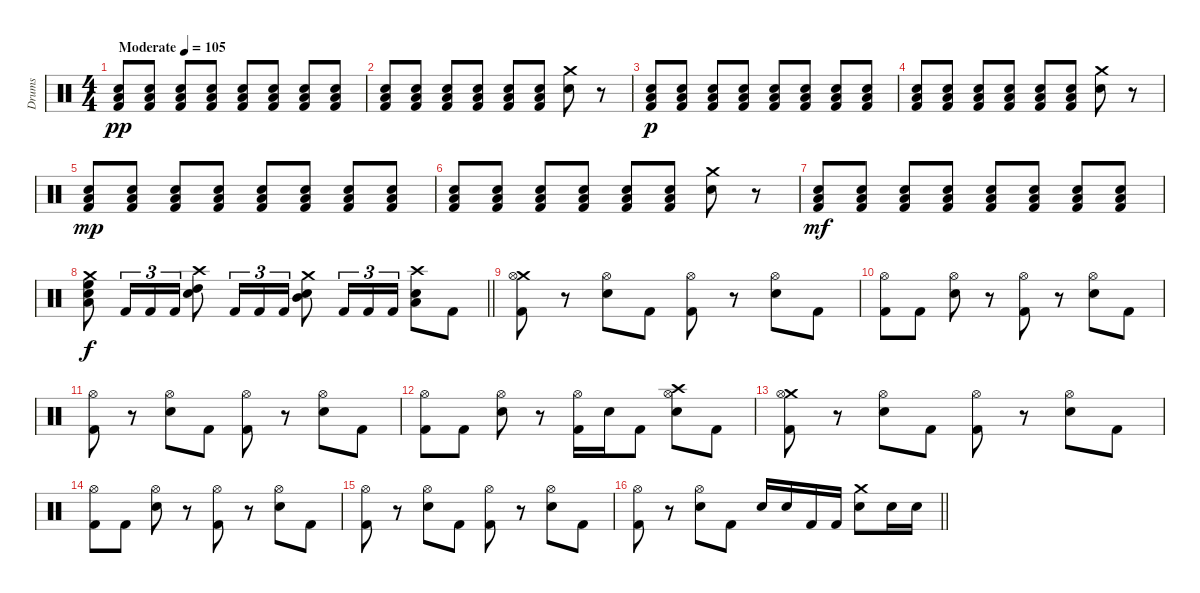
\track ("Drums" "Drums") {instrument percussion}
\staff {score}
\articulation defaults
\ts (4 4)
\section ("" "")
\tempo (105 "Moderate")
\clef neutral
\ks c
("Low Floor Tom (hit)" "Electric Snare (hit)" "Kick (hit) 2").8{dy pp} ("Low Floor Tom (hit)" "Electric Snare (hit)" "Kick (hit) 2").8 ("Low Floor Tom (hit)" "Electric Snare (hit)" "Kick (hit) 2").8 ("Low Floor Tom (hit)" "Electric Snare (hit)" "Kick (hit) 2").8 ("Low Floor Tom (hit)" "Electric Snare (hit)" "Kick (hit) 2").8 ("Low Floor Tom (hit)" "Electric Snare (hit)" "Kick (hit) 2").8 ("Low Floor Tom (hit)" "Electric Snare (hit)" "Kick (hit) 2").8 ("Low Floor Tom (hit)" "Electric Snare (hit)" "Kick (hit) 2").8 |
("Low Floor Tom (hit)" "Electric Snare (hit)" "Kick (hit) 2").8 ("Low Floor Tom (hit)" "Electric Snare (hit)" "Kick (hit) 2").8 ("Low Floor Tom (hit)" "Electric Snare (hit)" "Kick (hit) 2").8 ("Low Floor Tom (hit)" "Electric Snare (hit)" "Kick (hit) 2").8 ("Low Floor Tom (hit)" "Electric Snare (hit)" "Kick (hit) 2").8 ("Low Floor Tom (hit)" "Electric Snare (hit)" "Kick (hit) 2").8 ("Crash medium (hit)" "Electric Snare (hit)").8 r.8 |
("Low Floor Tom (hit)" "Electric Snare (hit)" "Kick (hit) 2").8{dy p} ("Low Floor Tom (hit)" "Electric Snare (hit)" "Kick (hit) 2").8 ("Low Floor Tom (hit)" "Electric Snare (hit)" "Kick (hit) 2").8 ("Low Floor Tom (hit)" "Electric Snare (hit)" "Kick (hit) 2").8 ("Low Floor Tom (hit)" "Electric Snare (hit)" "Kick (hit) 2").8 ("Low Floor Tom (hit)" "Electric Snare (hit)" "Kick (hit) 2").8 ("Low Floor Tom (hit)" "Electric Snare (hit)" "Kick (hit) 2").8 ("Low Floor Tom (hit)" "Electric Snare (hit)" "Kick (hit) 2").8 |
("Low Floor Tom (hit)" "Electric Snare (hit)" "Kick (hit) 2").8 ("Low Floor Tom (hit)" "Electric Snare (hit)" "Kick (hit) 2").8 ("Low Floor Tom (hit)" "Electric Snare (hit)" "Kick (hit) 2").8 ("Low Floor Tom (hit)" "Electric Snare (hit)" "Kick (hit) 2").8 ("Low Floor Tom (hit)" "Electric Snare (hit)" "Kick (hit) 2").8 ("Low Floor Tom (hit)" "Electric Snare (hit)" "Kick (hit) 2").8 ("Crash medium (hit)" "Electric Snare (hit)").8 r.8 |
("Low Floor Tom (hit)" "Electric Snare (hit)" "Kick (hit) 2").8{dy mp} ("Low Floor Tom (hit)" "Electric Snare (hit)" "Kick (hit) 2").8 ("Low Floor Tom (hit)" "Electric Snare (hit)" "Kick (hit) 2").8 ("Low Floor Tom (hit)" "Electric Snare (hit)" "Kick (hit) 2").8 ("Low Floor Tom (hit)" "Electric Snare (hit)" "Kick (hit) 2").8 ("Low Floor Tom (hit)" "Electric Snare (hit)" "Kick (hit) 2").8 ("Low Floor Tom (hit)" "Electric Snare (hit)" "Kick (hit) 2").8 ("Low Floor Tom (hit)" "Electric Snare (hit)" "Kick (hit) 2").8 |
("Low Floor Tom (hit)" "Electric Snare (hit)" "Kick (hit) 2").8 ("Low Floor Tom (hit)" "Electric Snare (hit)" "Kick (hit) 2").8 ("Low Floor Tom (hit)" "Electric Snare (hit)" "Kick (hit) 2").8 ("Low Floor Tom (hit)" "Electric Snare (hit)" "Kick (hit) 2").8 ("Low Floor Tom (hit)" "Electric Snare (hit)" "Kick (hit) 2").8 ("Low Floor Tom (hit)" "Electric Snare (hit)" "Kick (hit) 2").8 ("Crash medium (hit)" "Electric Snare (hit)").8 r.8 |
("Low Floor Tom (hit)" "Electric Snare (hit)" "Kick (hit) 2").8{dy mf} ("Low Floor Tom (hit)" "Electric Snare (hit)" "Kick (hit) 2").8 ("Low Floor Tom (hit)" "Electric Snare (hit)" "Kick (hit) 2").8 ("Low Floor Tom (hit)" "Electric Snare (hit)" "Kick (hit) 2").8 ("Low Floor Tom (hit)" "Electric Snare (hit)" "Kick (hit) 2").8 ("Low Floor Tom (hit)" "Electric Snare (hit)" "Kick (hit) 2").8 ("Low Floor Tom (hit)" "Electric Snare (hit)" "Kick (hit) 2").8 ("Low Floor Tom (hit)" "Electric Snare (hit)" "Kick (hit) 2").8 |
\barLineRight lightlight
("Crash medium (hit)" "High Floor Tom (hit)" "Electric Snare (hit)" "Low Tom (hit)").8{dy f} "Kick (hit) 2".16{tu (3 2)} "Kick (hit) 2".16{tu (3 2)} "Kick (hit) 2".16{tu (3 2)} ("Crash high (hit)" "High Tom (hit)" "Electric Snare (hit)").8 "Kick (hit) 2".16{tu (3 2)} "Kick (hit) 2".16{tu (3 2)} "Kick (hit) 2".16{tu (3 2)} ("Crash medium (hit)" "Mid Tom (hit)" "Electric Snare (hit)").8 "Kick (hit) 2".16{tu (3 2)} "Kick (hit) 2".16{tu (3 2)} "Kick (hit) 2".16{tu (3 2)} ("Crash high (hit)" "Low Tom (hit)" "Electric Snare (hit)").8 "Kick (hit) 2".8 |
\section ("" "")
("Crash medium (hit)" "Hi-Hat (open)" "Kick (hit) 2").8 r.8 ("Hi-Hat (open)" "Electric Snare (hit)").8 "Kick (hit) 2".8 ("Hi-Hat (open)" "Kick (hit) 2").8 r.8 ("Hi-Hat (open)" "Electric Snare (hit)").8 "Kick (hit) 2".8 |
("Hi-Hat (open)" "Kick (hit) 2").8 "Kick (hit) 2".8 ("Hi-Hat (open)" "Electric Snare (hit)").8 r.8 ("Hi-Hat (open)" "Kick (hit) 2").8 r.8 ("Hi-Hat (open)" "Electric Snare (hit)").8 "Kick (hit) 2".8 |
("Hi-Hat (open)" "Kick (hit) 2").8 r.8 ("Hi-Hat (open)" "Electric Snare (hit)").8 "Kick (hit) 2".8 ("Hi-Hat (open)" "Kick (hit) 2").8 r.8 ("Hi-Hat (open)" "Electric Snare (hit)").8 "Kick (hit) 2".8 |
("Hi-Hat (open)" "Kick (hit) 2").8 "Kick (hit) 2".8 ("Hi-Hat (open)" "Electric Snare (hit)").8 r.8 ("Hi-Hat (open)" "Kick (hit) 2").16 "Electric Snare (hit)".16 "Kick (hit) 2".8 ("Crash high (hit)" "Hi-Hat (open)" "Electric Snare (hit)").8 "Kick (hit) 2".8 |
("Crash medium (hit)" "Hi-Hat (open)" "Kick (hit) 2").8 r.8 ("Hi-Hat (open)" "Electric Snare (hit)").8 "Kick (hit) 2".8 ("Hi-Hat (open)" "Kick (hit) 2").8 r.8 ("Hi-Hat (open)" "Electric Snare (hit)").8 "Kick (hit) 2".8 |
("Hi-Hat (open)" "Kick (hit) 2").8 "Kick (hit) 2".8 ("Hi-Hat (open)" "Electric Snare (hit)").8 r.8 ("Hi-Hat (open)" "Kick (hit) 2").8 r.8 ("Hi-Hat (open)" "Electric Snare (hit)").8 "Kick (hit) 2".8 |
("Hi-Hat (open)" "Kick (hit) 2").8 r.8 ("Hi-Hat (open)" "Electric Snare (hit)").8 "Kick (hit) 2".8 ("Hi-Hat (open)" "Kick (hit) 2").8 r.8 ("Hi-Hat (open)" "Electric Snare (hit)").8 "Kick (hit) 2".8 |
\barLineRight lightlight
("Hi-Hat (open)" "Kick (hit) 2").8 r.8 ("Hi-Hat (open)" "Electric Snare (hit)").8 "Kick (hit) 2".8 "Electric Snare (hit)".16 "Electric Snare (hit)".16 "Kick (hit) 2".16 "Kick (hit) 2".16 ("Crash medium (hit)" "Electric Snare (hit)").8 "Electric Snare (hit)".16 "Electric Snare (hit)".16
